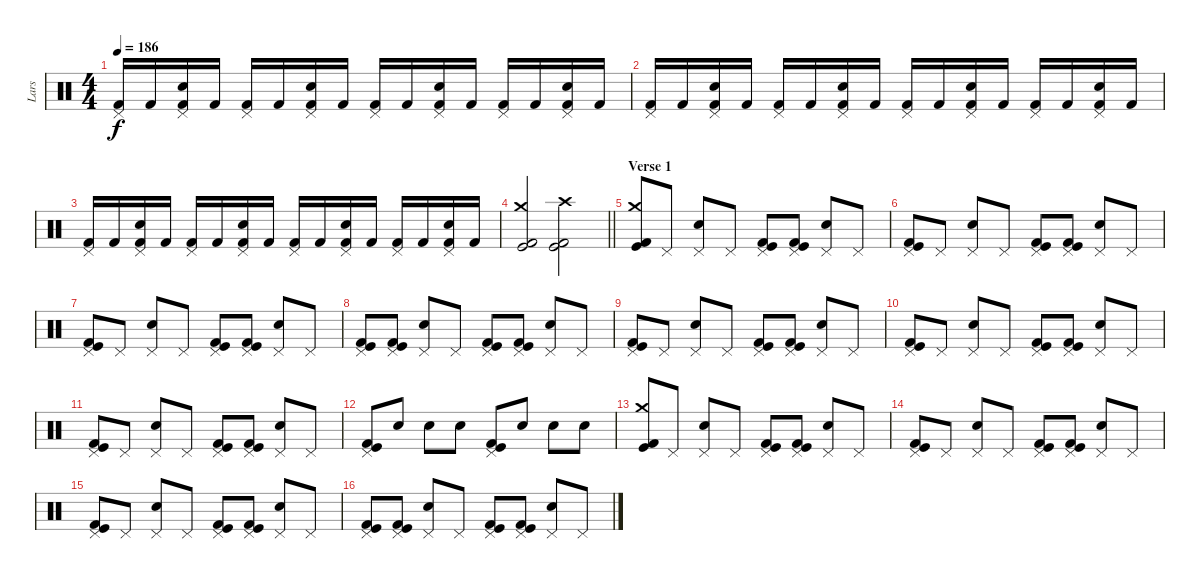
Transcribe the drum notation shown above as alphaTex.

\track ("Lars" "Lars") {instrument percussion}
\staff {score}
\articulation defaults
\ts (4 4)
\tempo 186
\clef neutral
\ks c
("Pedal Hi-Hat (hit)" "Kick (hit) 2").16{dy f} "Kick (hit) 2".16 ("Pedal Hi-Hat (hit)" "Electric Snare (hit)" "Kick (hit) 2").16 "Kick (hit) 2".16 ("Pedal Hi-Hat (hit)" "Kick (hit) 2").16 "Kick (hit) 2".16 ("Pedal Hi-Hat (hit)" "Electric Snare (hit)" "Kick (hit) 2").16 "Kick (hit) 2".16 ("Pedal Hi-Hat (hit)" "Kick (hit) 2").16 "Kick (hit) 2".16 ("Pedal Hi-Hat (hit)" "Electric Snare (hit)" "Kick (hit) 2").16 "Kick (hit) 2".16 ("Pedal Hi-Hat (hit)" "Kick (hit) 2").16 "Kick (hit) 2".16 ("Pedal Hi-Hat (hit)" "Electric Snare (hit)" "Kick (hit) 2").16 "Kick (hit) 2".16 |
("Pedal Hi-Hat (hit)" "Kick (hit) 2").16 "Kick (hit) 2".16 ("Pedal Hi-Hat (hit)" "Electric Snare (hit)" "Kick (hit) 2").16 "Kick (hit) 2".16 ("Pedal Hi-Hat (hit)" "Kick (hit) 2").16 "Kick (hit) 2".16 ("Pedal Hi-Hat (hit)" "Electric Snare (hit)" "Kick (hit) 2").16 "Kick (hit) 2".16 ("Pedal Hi-Hat (hit)" "Kick (hit) 2").16 "Kick (hit) 2".16 ("Pedal Hi-Hat (hit)" "Electric Snare (hit)" "Kick (hit) 2").16 "Kick (hit) 2".16 ("Pedal Hi-Hat (hit)" "Kick (hit) 2").16 "Kick (hit) 2".16 ("Pedal Hi-Hat (hit)" "Electric Snare (hit)" "Kick (hit) 2").16 "Kick (hit) 2".16 |
("Pedal Hi-Hat (hit)" "Kick (hit) 2").16 "Kick (hit) 2".16 ("Pedal Hi-Hat (hit)" "Electric Snare (hit)" "Kick (hit) 2").16 "Kick (hit) 2".16 ("Pedal Hi-Hat (hit)" "Kick (hit) 2").16 "Kick (hit) 2".16 ("Pedal Hi-Hat (hit)" "Electric Snare (hit)" "Kick (hit) 2").16 "Kick (hit) 2".16 ("Pedal Hi-Hat (hit)" "Kick (hit) 2").16 "Kick (hit) 2".16 ("Pedal Hi-Hat (hit)" "Electric Snare (hit)" "Kick (hit) 2").16 "Kick (hit) 2".16 ("Pedal Hi-Hat (hit)" "Kick (hit) 2").16 "Kick (hit) 2".16 ("Pedal Hi-Hat (hit)" "Electric Snare (hit)" "Kick (hit) 2").16 "Kick (hit) 2".16 |
\barLineRight lightlight
("Crash medium (hit)" "Kick (hit)" "Kick (hit) 2").2 ("Crash high (hit)" "Kick (hit)" "Kick (hit) 2").2 |
\section ("" "Verse 1")
("Crash medium (hit)" "Kick (hit)" "Kick (hit) 2").8 "Pedal Hi-Hat (hit)".8 ("Pedal Hi-Hat (hit)" "Electric Snare (hit)").8 "Pedal Hi-Hat (hit)".8 ("Pedal Hi-Hat (hit)" "Kick (hit)" "Kick (hit) 2").8 ("Pedal Hi-Hat (hit)" "Kick (hit)" "Kick (hit) 2").8 ("Pedal Hi-Hat (hit)" "Electric Snare (hit)").8 "Pedal Hi-Hat (hit)".8 |
("Pedal Hi-Hat (hit)" "Kick (hit)" "Kick (hit) 2").8 "Pedal Hi-Hat (hit)".8 ("Pedal Hi-Hat (hit)" "Electric Snare (hit)").8 "Pedal Hi-Hat (hit)".8 ("Pedal Hi-Hat (hit)" "Kick (hit)" "Kick (hit) 2").8 ("Pedal Hi-Hat (hit)" "Kick (hit)" "Kick (hit) 2").8 ("Pedal Hi-Hat (hit)" "Electric Snare (hit)").8 "Pedal Hi-Hat (hit)".8 |
("Pedal Hi-Hat (hit)" "Kick (hit)" "Kick (hit) 2").8 "Pedal Hi-Hat (hit)".8 ("Pedal Hi-Hat (hit)" "Electric Snare (hit)").8 "Pedal Hi-Hat (hit)".8 ("Pedal Hi-Hat (hit)" "Kick (hit)" "Kick (hit) 2").8 ("Pedal Hi-Hat (hit)" "Kick (hit)" "Kick (hit) 2").8 ("Pedal Hi-Hat (hit)" "Electric Snare (hit)").8 "Pedal Hi-Hat (hit)".8 |
("Pedal Hi-Hat (hit)" "Kick (hit)" "Kick (hit) 2").8 ("Pedal Hi-Hat (hit)" "Kick (hit)" "Kick (hit) 2").8 ("Pedal Hi-Hat (hit)" "Electric Snare (hit)").8 "Pedal Hi-Hat (hit)".8 ("Pedal Hi-Hat (hit)" "Kick (hit)" "Kick (hit) 2").8 ("Pedal Hi-Hat (hit)" "Kick (hit)" "Kick (hit) 2").8 ("Pedal Hi-Hat (hit)" "Electric Snare (hit)").8 "Pedal Hi-Hat (hit)".8 |
("Pedal Hi-Hat (hit)" "Kick (hit)" "Kick (hit) 2").8 "Pedal Hi-Hat (hit)".8 ("Pedal Hi-Hat (hit)" "Electric Snare (hit)").8 "Pedal Hi-Hat (hit)".8 ("Pedal Hi-Hat (hit)" "Kick (hit)" "Kick (hit) 2").8 ("Pedal Hi-Hat (hit)" "Kick (hit)" "Kick (hit) 2").8 ("Pedal Hi-Hat (hit)" "Electric Snare (hit)").8 "Pedal Hi-Hat (hit)".8 |
("Pedal Hi-Hat (hit)" "Kick (hit)" "Kick (hit) 2").8 "Pedal Hi-Hat (hit)".8 ("Pedal Hi-Hat (hit)" "Electric Snare (hit)").8 "Pedal Hi-Hat (hit)".8 ("Pedal Hi-Hat (hit)" "Kick (hit)" "Kick (hit) 2").8 ("Pedal Hi-Hat (hit)" "Kick (hit)" "Kick (hit) 2").8 ("Pedal Hi-Hat (hit)" "Electric Snare (hit)").8 "Pedal Hi-Hat (hit)".8 |
("Pedal Hi-Hat (hit)" "Kick (hit)" "Kick (hit) 2").8 "Pedal Hi-Hat (hit)".8 ("Pedal Hi-Hat (hit)" "Electric Snare (hit)").8 "Pedal Hi-Hat (hit)".8 ("Pedal Hi-Hat (hit)" "Kick (hit)" "Kick (hit) 2").8 ("Pedal Hi-Hat (hit)" "Kick (hit)" "Kick (hit) 2").8 ("Pedal Hi-Hat (hit)" "Electric Snare (hit)").8 "Pedal Hi-Hat (hit)".8 |
("Pedal Hi-Hat (hit)" "Kick (hit)" "Kick (hit) 2").8 "Electric Snare (hit)".8 "Electric Snare (hit)".8 "Electric Snare (hit)".8 ("Pedal Hi-Hat (hit)" "Kick (hit)" "Kick (hit) 2").8 "Electric Snare (hit)".8 "Electric Snare (hit)".8 "Electric Snare (hit)".8 |
("Crash medium (hit)" "Kick (hit)" "Kick (hit) 2").8 "Pedal Hi-Hat (hit)".8 ("Pedal Hi-Hat (hit)" "Electric Snare (hit)").8 "Pedal Hi-Hat (hit)".8 ("Pedal Hi-Hat (hit)" "Kick (hit)" "Kick (hit) 2").8 ("Pedal Hi-Hat (hit)" "Kick (hit)" "Kick (hit) 2").8 ("Pedal Hi-Hat (hit)" "Electric Snare (hit)").8 "Pedal Hi-Hat (hit)".8 |
("Pedal Hi-Hat (hit)" "Kick (hit)" "Kick (hit) 2").8 "Pedal Hi-Hat (hit)".8 ("Pedal Hi-Hat (hit)" "Electric Snare (hit)").8 "Pedal Hi-Hat (hit)".8 ("Pedal Hi-Hat (hit)" "Kick (hit)" "Kick (hit) 2").8 ("Pedal Hi-Hat (hit)" "Kick (hit)" "Kick (hit) 2").8 ("Pedal Hi-Hat (hit)" "Electric Snare (hit)").8 "Pedal Hi-Hat (hit)".8 |
("Pedal Hi-Hat (hit)" "Kick (hit)" "Kick (hit) 2").8 "Pedal Hi-Hat (hit)".8 ("Pedal Hi-Hat (hit)" "Electric Snare (hit)").8 "Pedal Hi-Hat (hit)".8 ("Pedal Hi-Hat (hit)" "Kick (hit)" "Kick (hit) 2").8 ("Pedal Hi-Hat (hit)" "Kick (hit)" "Kick (hit) 2").8 ("Pedal Hi-Hat (hit)" "Electric Snare (hit)").8 "Pedal Hi-Hat (hit)".8 |
("Pedal Hi-Hat (hit)" "Kick (hit)" "Kick (hit) 2").8 ("Pedal Hi-Hat (hit)" "Kick (hit)" "Kick (hit) 2").8 ("Pedal Hi-Hat (hit)" "Electric Snare (hit)").8 "Pedal Hi-Hat (hit)".8 ("Pedal Hi-Hat (hit)" "Kick (hit)" "Kick (hit) 2").8 ("Pedal Hi-Hat (hit)" "Kick (hit)" "Kick (hit) 2").8 ("Pedal Hi-Hat (hit)" "Electric Snare (hit)").8 "Pedal Hi-Hat (hit)".8
